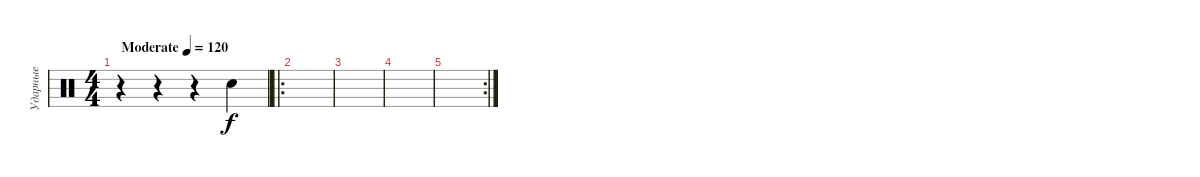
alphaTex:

\track ("Ударные" "Ударные") {instrument percussion}
\staff {score}
\articulation defaults
\ts (4 4)
\tempo (120 "Moderate")
\clef neutral
\ks c
r.4{dy f} r.4 r.4 "Snare (hit) 2".4 |
\ro
|
|
|
\rc 2
